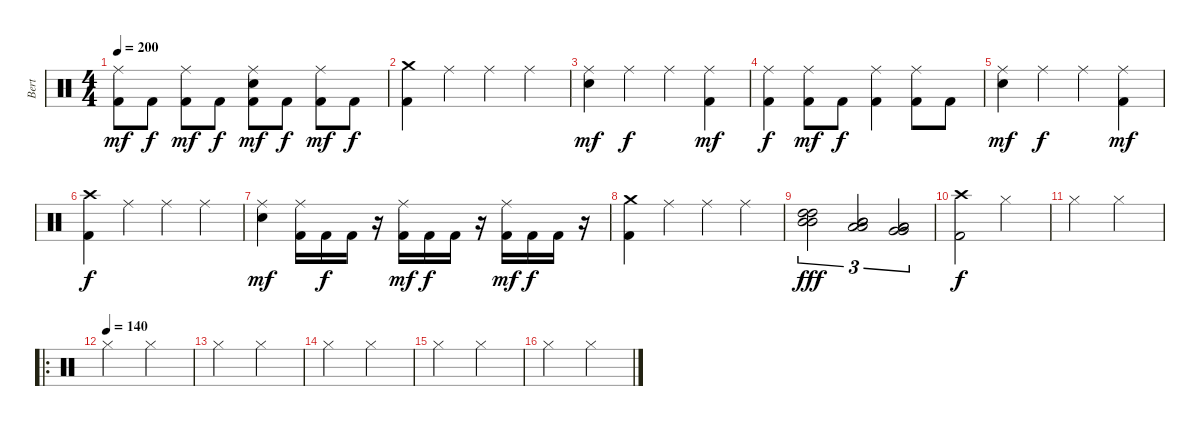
\track ("Bert" "Bert") {instrument percussion}
\staff {score}
\articulation defaults
\ts (4 4)
\tempo 200
\clef neutral
\ks c
("Ride (middle)" "Kick (hit) 2").8{dy mf} "Kick (hit) 2".8{dy f} ("Ride (middle)" "Kick (hit) 2").8{dy mf} "Kick (hit) 2".8{dy f} ("Ride (middle)" "Snare (hit) 2" "Kick (hit) 2").8{dy mf} "Kick (hit) 2".8{dy f} ("Ride (middle)" "Kick (hit) 2").8{dy mf} "Kick (hit) 2".8{dy f} |
("Crash medium (hit)" "Kick (hit) 2").4 "Ride (middle)".4 "Ride (middle)".4 "Ride (middle)".4 |
("Ride (middle)" "Snare (hit) 2").4{dy mf} "Ride (middle)".4{dy f} "Ride (middle)".4 ("Ride (middle)" "Kick (hit) 2").4{dy mf} |
("Ride (middle)" "Kick (hit) 2").4{dy f} ("Ride (middle)" "Kick (hit) 2").8{dy mf} "Kick (hit) 2".8{dy f} ("Ride (middle)" "Kick (hit) 2").4 ("Ride (middle)" "Kick (hit) 2").8 "Kick (hit) 2".8 |
("Ride (middle)" "Snare (hit) 2").4{dy mf} "Ride (middle)".4{dy f} "Ride (middle)".4 ("Ride (middle)" "Kick (hit) 2").4{dy mf} |
("Crash high (hit)" "Kick (hit) 2").4{dy f} "Ride (middle)".4 "Ride (middle)".4 "Ride (middle)".4 |
("Ride (middle)" "Snare (hit) 2").4{dy mf} ("Ride (middle)" "Kick (hit) 2").16 "Kick (hit) 2".16{dy f} "Kick (hit) 2".16 r.16 ("Ride (middle)" "Kick (hit) 2").16{dy mf} "Kick (hit) 2".16{dy f} "Kick (hit) 2".16 r.16 ("Ride (middle)" "Kick (hit) 2").16{dy mf} "Kick (hit) 2".16{dy f} "Kick (hit) 2".16 r.16 |
("Crash medium (hit)" "Kick (hit) 2").4 "Ride (middle)".4 "Ride (middle)".4 "Ride (middle)".4 |
("High Tom (hit)" "High Tom (hit)" "Mid Tom (hit)" "Mid Tom (hit)").2{tu (3 2) dy fff} ("Mid Tom (hit)" "Mid Tom (hit)" "Low Tom (hit)" "Low Tom (hit)").2{tu (3 2)} ("Low Tom (hit)" "Low Tom (hit)" "Very Low Tom (hit)" "Very Low Tom (hit)").2{tu (3 2)} |
("Crash high (hit)" "Kick (hit) 2").2{dy f} "Hi-Hat (closed)".2 |
"Hi-Hat (closed)".2 "Hi-Hat (closed)".2 |
\ro
\tempo (140)
"Hi-Hat (closed)".2 "Hi-Hat (closed)".2 |
"Hi-Hat (closed)".2 "Hi-Hat (closed)".2 |
"Hi-Hat (closed)".2 "Hi-Hat (closed)".2 |
"Hi-Hat (closed)".2 "Hi-Hat (closed)".2 |
"Hi-Hat (closed)".2 "Hi-Hat (closed)".2
